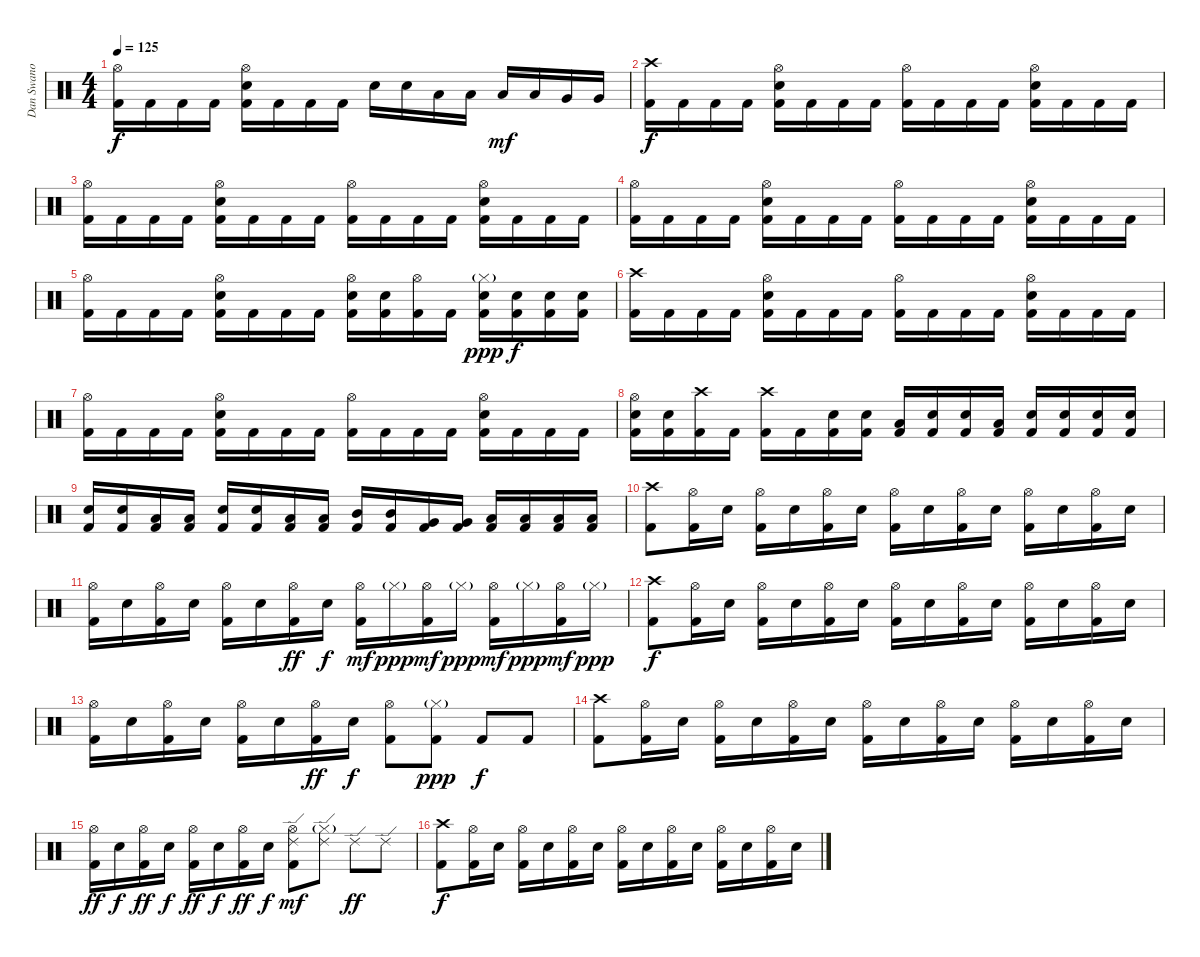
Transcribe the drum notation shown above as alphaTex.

\track ("Dan Swano" "Dan Swano") {instrument percussion}
\staff {score}
\articulation defaults
\ts (4 4)
\tempo 125
\clef neutral
\ks c
("Hi-Hat (open)" "Kick (hit) 2").16{dy f} "Kick (hit) 2".16 "Kick (hit) 2".16 "Kick (hit) 2".16 ("Hi-Hat (open)" "Electric Snare (hit)" "Kick (hit) 2").16 "Kick (hit) 2".16 "Kick (hit) 2".16 "Kick (hit) 2".16 "Electric Snare (hit)".16 "Electric Snare (hit)".16 "Low Floor Tom (hit)".16 "Low Floor Tom (hit)".16 "Low Tom (hit)".16{dy mf} "Low Tom (hit)".16 "Very Low Tom (hit)".16 "Very Low Tom (hit)".16 |
("Crash high (hit)" "Kick (hit) 2").16{dy f} "Kick (hit) 2".16 "Kick (hit) 2".16 "Kick (hit) 2".16 ("Hi-Hat (open)" "Electric Snare (hit)" "Kick (hit) 2").16 "Kick (hit) 2".16 "Kick (hit) 2".16 "Kick (hit) 2".16 ("Hi-Hat (open)" "Kick (hit) 2").16 "Kick (hit) 2".16 "Kick (hit) 2".16 "Kick (hit) 2".16 ("Hi-Hat (open)" "Electric Snare (hit)" "Kick (hit) 2").16 "Kick (hit) 2".16 "Kick (hit) 2".16 "Kick (hit) 2".16 |
("Hi-Hat (open)" "Kick (hit) 2").16 "Kick (hit) 2".16 "Kick (hit) 2".16 "Kick (hit) 2".16 ("Hi-Hat (open)" "Electric Snare (hit)" "Kick (hit) 2").16 "Kick (hit) 2".16 "Kick (hit) 2".16 "Kick (hit) 2".16 ("Hi-Hat (open)" "Kick (hit) 2").16 "Kick (hit) 2".16 "Kick (hit) 2".16 "Kick (hit) 2".16 ("Hi-Hat (open)" "Electric Snare (hit)" "Kick (hit) 2").16 "Kick (hit) 2".16 "Kick (hit) 2".16 "Kick (hit) 2".16 |
("Hi-Hat (open)" "Kick (hit) 2").16 "Kick (hit) 2".16 "Kick (hit) 2".16 "Kick (hit) 2".16 ("Hi-Hat (open)" "Electric Snare (hit)" "Kick (hit) 2").16 "Kick (hit) 2".16 "Kick (hit) 2".16 "Kick (hit) 2".16 ("Hi-Hat (open)" "Kick (hit) 2").16 "Kick (hit) 2".16 "Kick (hit) 2".16 "Kick (hit) 2".16 ("Hi-Hat (open)" "Electric Snare (hit)" "Kick (hit) 2").16 "Kick (hit) 2".16 "Kick (hit) 2".16 "Kick (hit) 2".16 |
("Hi-Hat (open)" "Kick (hit) 2").16 "Kick (hit) 2".16 "Kick (hit) 2".16 "Kick (hit) 2".16 ("Hi-Hat (open)" "Electric Snare (hit)" "Kick (hit) 2").16 "Kick (hit) 2".16 "Kick (hit) 2".16 "Kick (hit) 2".16 ("Hi-Hat (open)" "Electric Snare (hit)" "Kick (hit) 2").16 ("Electric Snare (hit)" "Kick (hit) 2").16 ("Hi-Hat (open)" "Kick (hit) 2").16 "Kick (hit) 2".16 ("Hi-Hat (closed)"{g} "Electric Snare (hit)" "Kick (hit) 2").16{dy ppp} ("Electric Snare (hit)" "Kick (hit) 2").16{dy f} ("Electric Snare (hit)" "Kick (hit) 2").16 ("Electric Snare (hit)" "Kick (hit) 2").16 |
("Crash high (hit)" "Kick (hit) 2").16 "Kick (hit) 2".16 "Kick (hit) 2".16 "Kick (hit) 2".16 ("Hi-Hat (open)" "Electric Snare (hit)" "Kick (hit) 2").16 "Kick (hit) 2".16 "Kick (hit) 2".16 "Kick (hit) 2".16 ("Hi-Hat (open)" "Kick (hit) 2").16 "Kick (hit) 2".16 "Kick (hit) 2".16 "Kick (hit) 2".16 ("Hi-Hat (open)" "Electric Snare (hit)" "Kick (hit) 2").16 "Kick (hit) 2".16 "Kick (hit) 2".16 "Kick (hit) 2".16 |
("Hi-Hat (open)" "Kick (hit) 2").16 "Kick (hit) 2".16 "Kick (hit) 2".16 "Kick (hit) 2".16 ("Hi-Hat (open)" "Electric Snare (hit)" "Kick (hit) 2").16 "Kick (hit) 2".16 "Kick (hit) 2".16 "Kick (hit) 2".16 ("Hi-Hat (open)" "Kick (hit) 2").16 "Kick (hit) 2".16 "Kick (hit) 2".16 "Kick (hit) 2".16 ("Hi-Hat (open)" "Electric Snare (hit)" "Kick (hit) 2").16 "Kick (hit) 2".16 "Kick (hit) 2".16 "Kick (hit) 2".16 |
("Hi-Hat (open)" "Electric Snare (hit)" "Kick (hit) 2").16 ("Electric Snare (hit)" "Kick (hit) 2").16 ("Crash high (hit)" "Kick (hit) 2").16 "Kick (hit) 2".16 ("Crash high (hit)" "Kick (hit) 2").16 "Kick (hit) 2".16 ("Electric Snare (hit)" "Kick (hit) 2").16 ("Electric Snare (hit)" "Kick (hit) 2").16 ("Low Floor Tom (hit)" "Kick (hit) 2").16 ("Electric Snare (hit)" "Kick (hit) 2").16 ("Electric Snare (hit)" "Kick (hit) 2").16 ("Low Floor Tom (hit)" "Kick (hit) 2").16 ("Electric Snare (hit)" "Kick (hit) 2").16 ("Electric Snare (hit)" "Kick (hit) 2").16 ("Electric Snare (hit)" "Kick (hit) 2").16 ("Electric Snare (hit)" "Kick (hit) 2").16 |
("Electric Snare (hit)" "Kick (hit) 2").16 ("Electric Snare (hit)" "Kick (hit) 2").16 ("Low Floor Tom (hit)" "Kick (hit) 2").16 ("Low Floor Tom (hit)" "Kick (hit) 2").16 ("Electric Snare (hit)" "Kick (hit) 2").16 ("Electric Snare (hit)" "Kick (hit) 2").16 ("Low Floor Tom (hit)" "Kick (hit) 2").16 ("Low Floor Tom (hit)" "Kick (hit) 2").16 ("Mid Tom (hit)" "Kick (hit) 2").16 ("Mid Tom (hit)" "Kick (hit) 2").16 ("Very Low Tom (hit)" "Kick (hit) 2").16 ("Very Low Tom (hit)" "Kick (hit) 2").16 ("Low Tom (hit)" "Kick (hit) 2").16 ("Low Tom (hit)" "Kick (hit) 2").16 ("Low Floor Tom (hit)" "Kick (hit) 2").16 ("Low Floor Tom (hit)" "Kick (hit) 2").16 |
("Crash high (hit)" "Kick (hit) 2").8 ("Hi-Hat (open)" "Kick (hit) 2").16 "Electric Snare (hit)".16 ("Hi-Hat (open)" "Kick (hit) 2").16 "Electric Snare (hit)".16 ("Hi-Hat (open)" "Kick (hit) 2").16 "Electric Snare (hit)".16 ("Hi-Hat (open)" "Kick (hit) 2").16 "Electric Snare (hit)".16 ("Hi-Hat (open)" "Kick (hit) 2").16 "Electric Snare (hit)".16 ("Hi-Hat (open)" "Kick (hit) 2").16 "Electric Snare (hit)".16 ("Hi-Hat (open)" "Kick (hit) 2").16 "Electric Snare (hit)".16 |
("Hi-Hat (open)" "Kick (hit) 2").16 "Electric Snare (hit)".16 ("Hi-Hat (open)" "Kick (hit) 2").16 "Electric Snare (hit)".16 ("Hi-Hat (open)" "Kick (hit) 2").16 "Electric Snare (hit)".16 ("Hi-Hat (open)" "Kick (hit) 2").16{dy ff} "Electric Snare (hit)".16{dy f} ("Hi-Hat (open)" "Kick (hit) 2").16{dy mf} "Hi-Hat (closed)"{g}.16{dy ppp} ("Hi-Hat (open)" "Kick (hit) 2").16{dy mf} "Hi-Hat (closed)"{g}.16{dy ppp} ("Hi-Hat (open)" "Kick (hit) 2").16{dy mf} "Hi-Hat (closed)"{g}.16{dy ppp} ("Hi-Hat (open)" "Kick (hit) 2").16{dy mf} "Hi-Hat (closed)"{g}.16{dy ppp} |
("Crash high (hit)" "Kick (hit) 2").8{dy f} ("Hi-Hat (open)" "Kick (hit) 2").16 "Electric Snare (hit)".16 ("Hi-Hat (open)" "Kick (hit) 2").16 "Electric Snare (hit)".16 ("Hi-Hat (open)" "Kick (hit) 2").16 "Electric Snare (hit)".16 ("Hi-Hat (open)" "Kick (hit) 2").16 "Electric Snare (hit)".16 ("Hi-Hat (open)" "Kick (hit) 2").16 "Electric Snare (hit)".16 ("Hi-Hat (open)" "Kick (hit) 2").16 "Electric Snare (hit)".16 ("Hi-Hat (open)" "Kick (hit) 2").16 "Electric Snare (hit)".16 |
("Hi-Hat (open)" "Kick (hit) 2").16 "Electric Snare (hit)".16 ("Hi-Hat (open)" "Kick (hit) 2").16 "Electric Snare (hit)".16 ("Hi-Hat (open)" "Kick (hit) 2").16 "Electric Snare (hit)".16 ("Hi-Hat (open)" "Kick (hit) 2").16{dy ff} "Electric Snare (hit)".16{dy f} ("Hi-Hat (open)" "Kick (hit) 2").8 ("Hi-Hat (closed)"{g} "Kick (hit) 2").8{dy ppp} "Kick (hit) 2".8{dy f} "Kick (hit) 2".8 |
("Crash high (hit)" "Kick (hit) 2").8 ("Hi-Hat (open)" "Kick (hit) 2").16 "Electric Snare (hit)".16 ("Hi-Hat (open)" "Kick (hit) 2").16 "Electric Snare (hit)".16 ("Hi-Hat (open)" "Kick (hit) 2").16 "Electric Snare (hit)".16 ("Hi-Hat (open)" "Kick (hit) 2").16 "Electric Snare (hit)".16 ("Hi-Hat (open)" "Kick (hit) 2").16 "Electric Snare (hit)".16 ("Hi-Hat (open)" "Kick (hit) 2").16 "Electric Snare (hit)".16 ("Hi-Hat (open)" "Kick (hit) 2").16 "Electric Snare (hit)".16 |
("Hi-Hat (open)" "Kick (hit) 2").16{dy ff} "Electric Snare (hit)".16{dy f} ("Hi-Hat (open)" "Kick (hit) 2").16{dy ff} "Electric Snare (hit)".16{dy f} ("Hi-Hat (open)" "Kick (hit) 2").16{dy ff} "Electric Snare (hit)".16{dy f} ("Hi-Hat (open)" "Kick (hit) 2").16{dy ff} "Electric Snare (hit)".16{dy f} ("Hi-Hat (open)" "Ride (edge) 2" "Kick (hit) 2").8{dy mf} ("Hi-Hat (closed)"{g} "Ride (edge) 2").8 "Ride (edge) 2".8{dy ff} "Ride (edge) 2".8 |
("Crash high (hit)" "Kick (hit) 2").8{dy f} ("Hi-Hat (open)" "Kick (hit) 2").16 "Electric Snare (hit)".16 ("Hi-Hat (open)" "Kick (hit) 2").16 "Electric Snare (hit)".16 ("Hi-Hat (open)" "Kick (hit) 2").16 "Electric Snare (hit)".16 ("Hi-Hat (open)" "Kick (hit) 2").16 "Electric Snare (hit)".16 ("Hi-Hat (open)" "Kick (hit) 2").16 "Electric Snare (hit)".16 ("Hi-Hat (open)" "Kick (hit) 2").16 "Electric Snare (hit)".16 ("Hi-Hat (open)" "Kick (hit) 2").16 "Electric Snare (hit)".16
